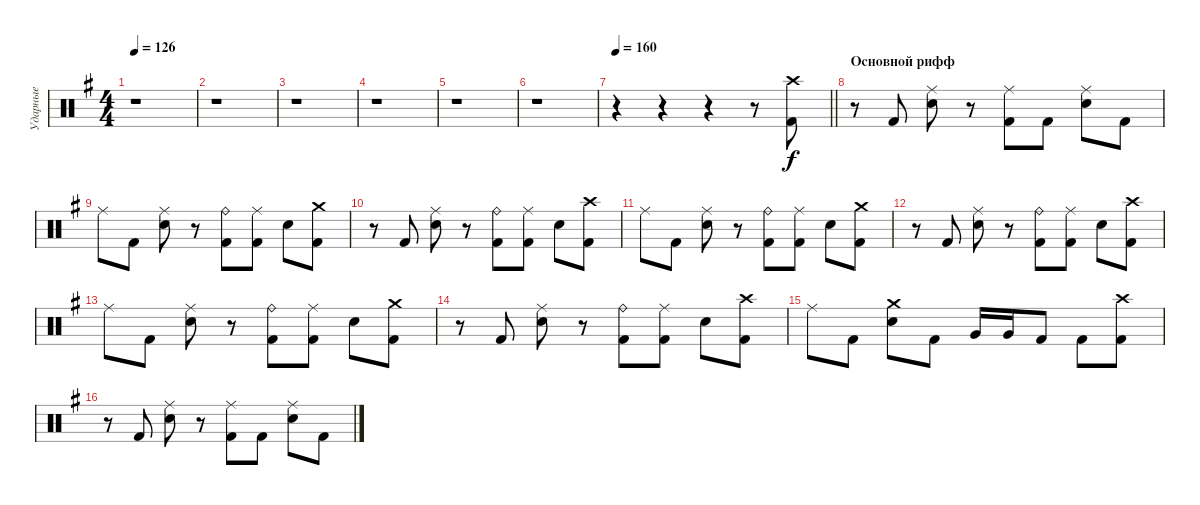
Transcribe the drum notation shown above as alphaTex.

\track ("Ударные" "Ударные") {instrument percussion}
\staff {score}
\articulation defaults
\ts (4 4)
\tempo 126
\clef neutral
\ks eminor
r.1{dy f} |
r.1 |
r.1 |
r.1 |
r.1 |
r.1 |
\tempo 160
\barLineRight lightlight
r.4 r.4 r.4 r.8 ("Crash high (hit)" "Kick (hit) 2").8 |
\section ("" "Основной рифф")
r.8 "Kick (hit) 2".8 ("Ride (middle)" "Electric Snare (hit)").8 r.8 ("Ride (middle)" "Kick (hit) 2").8 "Kick (hit) 2".8 ("Ride (middle)" "Electric Snare (hit)").8 "Kick (hit) 2".8 |
"Ride (middle)".8 "Kick (hit) 2".8 ("Ride (middle)" "Electric Snare (hit)").8 r.8 ("Ride (bell)" "Kick (hit) 2").8 ("Ride (middle)" "Kick (hit) 2").8 "Electric Snare (hit)".8 ("Crash medium (hit)" "Kick (hit) 2").8 |
r.8 "Kick (hit) 2".8 ("Ride (middle)" "Electric Snare (hit)").8 r.8 ("Ride (bell)" "Kick (hit) 2").8 ("Ride (middle)" "Kick (hit) 2").8 "Electric Snare (hit)".8 ("Crash high (hit)" "Kick (hit) 2").8 |
"Ride (middle)".8 "Kick (hit) 2".8 ("Ride (middle)" "Electric Snare (hit)").8 r.8 ("Ride (bell)" "Kick (hit) 2").8 ("Ride (middle)" "Kick (hit) 2").8 "Electric Snare (hit)".8 ("Crash medium (hit)" "Kick (hit) 2").8 |
r.8 "Kick (hit) 2".8 ("Ride (middle)" "Electric Snare (hit)").8 r.8 ("Ride (bell)" "Kick (hit) 2").8 ("Ride (middle)" "Kick (hit) 2").8 "Electric Snare (hit)".8 ("Crash high (hit)" "Kick (hit) 2").8 |
"Ride (middle)".8 "Kick (hit) 2".8 ("Ride (middle)" "Electric Snare (hit)").8 r.8 ("Ride (bell)" "Kick (hit) 2").8 ("Ride (middle)" "Kick (hit) 2").8 "Electric Snare (hit)".8 ("Crash medium (hit)" "Kick (hit) 2").8 |
r.8 "Kick (hit) 2".8 ("Ride (middle)" "Electric Snare (hit)").8 r.8 ("Ride (bell)" "Kick (hit) 2").8 ("Ride (middle)" "Kick (hit) 2").8 "Electric Snare (hit)".8 ("Crash high (hit)" "Kick (hit) 2").8 |
"Ride (middle)".8 "Kick (hit) 2".8 ("Crash medium (hit)" "Electric Snare (hit)").8 "Kick (hit) 2".8 "Very Low Tom (hit)".16 "Very Low Tom (hit)".16 "Kick (hit) 2".8 "Kick (hit) 2".8 ("Crash high (hit)" "Kick (hit) 2").8 |
r.8 "Kick (hit) 2".8 ("Ride (middle)" "Electric Snare (hit)").8 r.8 ("Ride (middle)" "Kick (hit) 2").8 "Kick (hit) 2".8 ("Ride (middle)" "Electric Snare (hit)").8 "Kick (hit) 2".8
